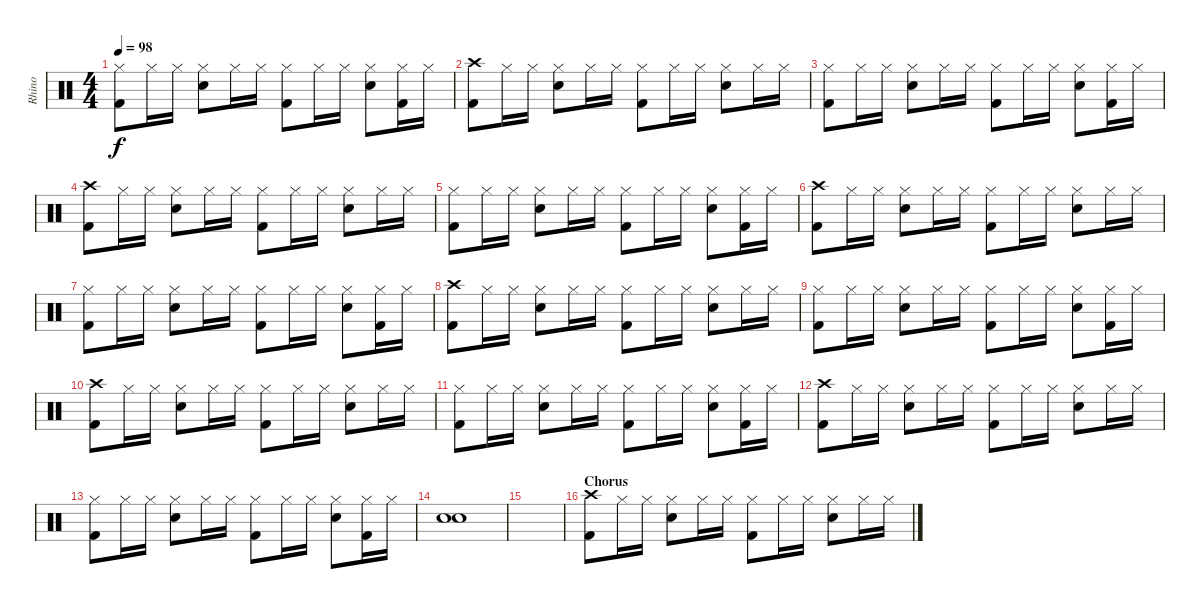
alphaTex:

\track ("Rhino" "Rhino") {instrument percussion}
\staff {score}
\articulation defaults
\ts (4 4)
\tempo 98
\clef neutral
\ks c
("Hi-Hat (closed)" "Kick (hit) 2").8{dy f} "Hi-Hat (closed)".16 "Hi-Hat (closed)".16 ("Hi-Hat (closed)" "Snare (hit) 2").8 "Hi-Hat (closed)".16 "Hi-Hat (closed)".16 ("Hi-Hat (closed)" "Kick (hit) 2").8 "Hi-Hat (closed)".16 "Hi-Hat (closed)".16 ("Hi-Hat (closed)" "Snare (hit) 2").8 ("Hi-Hat (closed)" "Kick (hit) 2").16 "Hi-Hat (closed)".16 |
("Crash high (hit)" "Kick (hit) 2").8 "Hi-Hat (closed)".16 "Hi-Hat (closed)".16 ("Hi-Hat (closed)" "Snare (hit) 2").8 "Hi-Hat (closed)".16 "Hi-Hat (closed)".16 ("Hi-Hat (closed)" "Kick (hit) 2").8 "Hi-Hat (closed)".16 "Hi-Hat (closed)".16 ("Hi-Hat (closed)" "Snare (hit) 2").8 "Hi-Hat (closed)".16 "Hi-Hat (closed)".16 |
("Hi-Hat (closed)" "Kick (hit) 2").8 "Hi-Hat (closed)".16 "Hi-Hat (closed)".16 ("Hi-Hat (closed)" "Snare (hit) 2").8 "Hi-Hat (closed)".16 "Hi-Hat (closed)".16 ("Hi-Hat (closed)" "Kick (hit) 2").8 "Hi-Hat (closed)".16 "Hi-Hat (closed)".16 ("Hi-Hat (closed)" "Snare (hit) 2").8 ("Hi-Hat (closed)" "Kick (hit) 2").16 "Hi-Hat (closed)".16 |
("Crash high (hit)" "Kick (hit) 2").8 "Hi-Hat (closed)".16 "Hi-Hat (closed)".16 ("Hi-Hat (closed)" "Snare (hit) 2").8 "Hi-Hat (closed)".16 "Hi-Hat (closed)".16 ("Hi-Hat (closed)" "Kick (hit) 2").8 "Hi-Hat (closed)".16 "Hi-Hat (closed)".16 ("Hi-Hat (closed)" "Snare (hit) 2").8 "Hi-Hat (closed)".16 "Hi-Hat (closed)".16 |
("Hi-Hat (closed)" "Kick (hit) 2").8 "Hi-Hat (closed)".16 "Hi-Hat (closed)".16 ("Hi-Hat (closed)" "Snare (hit) 2").8 "Hi-Hat (closed)".16 "Hi-Hat (closed)".16 ("Hi-Hat (closed)" "Kick (hit) 2").8 "Hi-Hat (closed)".16 "Hi-Hat (closed)".16 ("Hi-Hat (closed)" "Snare (hit) 2").8 ("Hi-Hat (closed)" "Kick (hit) 2").16 "Hi-Hat (closed)".16 |
("Crash high (hit)" "Kick (hit) 2").8 "Hi-Hat (closed)".16 "Hi-Hat (closed)".16 ("Hi-Hat (closed)" "Snare (hit) 2").8 "Hi-Hat (closed)".16 "Hi-Hat (closed)".16 ("Hi-Hat (closed)" "Kick (hit) 2").8 "Hi-Hat (closed)".16 "Hi-Hat (closed)".16 ("Hi-Hat (closed)" "Snare (hit) 2").8 "Hi-Hat (closed)".16 "Hi-Hat (closed)".16 |
("Hi-Hat (closed)" "Kick (hit) 2").8 "Hi-Hat (closed)".16 "Hi-Hat (closed)".16 ("Hi-Hat (closed)" "Snare (hit) 2").8 "Hi-Hat (closed)".16 "Hi-Hat (closed)".16 ("Hi-Hat (closed)" "Kick (hit) 2").8 "Hi-Hat (closed)".16 "Hi-Hat (closed)".16 ("Hi-Hat (closed)" "Snare (hit) 2").8 ("Hi-Hat (closed)" "Kick (hit) 2").16 "Hi-Hat (closed)".16 |
("Crash high (hit)" "Kick (hit) 2").8 "Hi-Hat (closed)".16 "Hi-Hat (closed)".16 ("Hi-Hat (closed)" "Snare (hit) 2").8 "Hi-Hat (closed)".16 "Hi-Hat (closed)".16 ("Hi-Hat (closed)" "Kick (hit) 2").8 "Hi-Hat (closed)".16 "Hi-Hat (closed)".16 ("Hi-Hat (closed)" "Snare (hit) 2").8 "Hi-Hat (closed)".16 "Hi-Hat (closed)".16 |
("Hi-Hat (closed)" "Kick (hit) 2").8 "Hi-Hat (closed)".16 "Hi-Hat (closed)".16 ("Hi-Hat (closed)" "Snare (hit) 2").8 "Hi-Hat (closed)".16 "Hi-Hat (closed)".16 ("Hi-Hat (closed)" "Kick (hit) 2").8 "Hi-Hat (closed)".16 "Hi-Hat (closed)".16 ("Hi-Hat (closed)" "Snare (hit) 2").8 ("Hi-Hat (closed)" "Kick (hit) 2").16 "Hi-Hat (closed)".16 |
("Crash high (hit)" "Kick (hit) 2").8 "Hi-Hat (closed)".16 "Hi-Hat (closed)".16 ("Hi-Hat (closed)" "Snare (hit) 2").8 "Hi-Hat (closed)".16 "Hi-Hat (closed)".16 ("Hi-Hat (closed)" "Kick (hit) 2").8 "Hi-Hat (closed)".16 "Hi-Hat (closed)".16 ("Hi-Hat (closed)" "Snare (hit) 2").8 "Hi-Hat (closed)".16 "Hi-Hat (closed)".16 |
("Hi-Hat (closed)" "Kick (hit) 2").8 "Hi-Hat (closed)".16 "Hi-Hat (closed)".16 ("Hi-Hat (closed)" "Snare (hit) 2").8 "Hi-Hat (closed)".16 "Hi-Hat (closed)".16 ("Hi-Hat (closed)" "Kick (hit) 2").8 "Hi-Hat (closed)".16 "Hi-Hat (closed)".16 ("Hi-Hat (closed)" "Snare (hit) 2").8 ("Hi-Hat (closed)" "Kick (hit) 2").16 "Hi-Hat (closed)".16 |
("Crash high (hit)" "Kick (hit) 2").8 "Hi-Hat (closed)".16 "Hi-Hat (closed)".16 ("Hi-Hat (closed)" "Snare (hit) 2").8 "Hi-Hat (closed)".16 "Hi-Hat (closed)".16 ("Hi-Hat (closed)" "Kick (hit) 2").8 "Hi-Hat (closed)".16 "Hi-Hat (closed)".16 ("Hi-Hat (closed)" "Snare (hit) 2").8 "Hi-Hat (closed)".16 "Hi-Hat (closed)".16 |
("Hi-Hat (closed)" "Kick (hit) 2").8 "Hi-Hat (closed)".16 "Hi-Hat (closed)".16 ("Hi-Hat (closed)" "Snare (hit) 2").8 "Hi-Hat (closed)".16 "Hi-Hat (closed)".16 ("Hi-Hat (closed)" "Kick (hit) 2").8 "Hi-Hat (closed)".16 "Hi-Hat (closed)".16 ("Hi-Hat (closed)" "Snare (hit) 2").8 ("Hi-Hat (closed)" "Kick (hit) 2").16 "Hi-Hat (closed)".16 |
("Snare (hit) 2" "Snare (hit) 2").1 |
|
\section ("" "Chorus")
("Crash high (hit)" "Kick (hit) 2").8 "Hi-Hat (closed)".16 "Hi-Hat (closed)".16 ("Hi-Hat (closed)" "Snare (hit) 2").8 "Hi-Hat (closed)".16 "Hi-Hat (closed)".16 ("Hi-Hat (closed)" "Kick (hit) 2").8 "Hi-Hat (closed)".16 "Hi-Hat (closed)".16 ("Hi-Hat (closed)" "Snare (hit) 2").8 "Hi-Hat (closed)".16 "Hi-Hat (closed)".16
